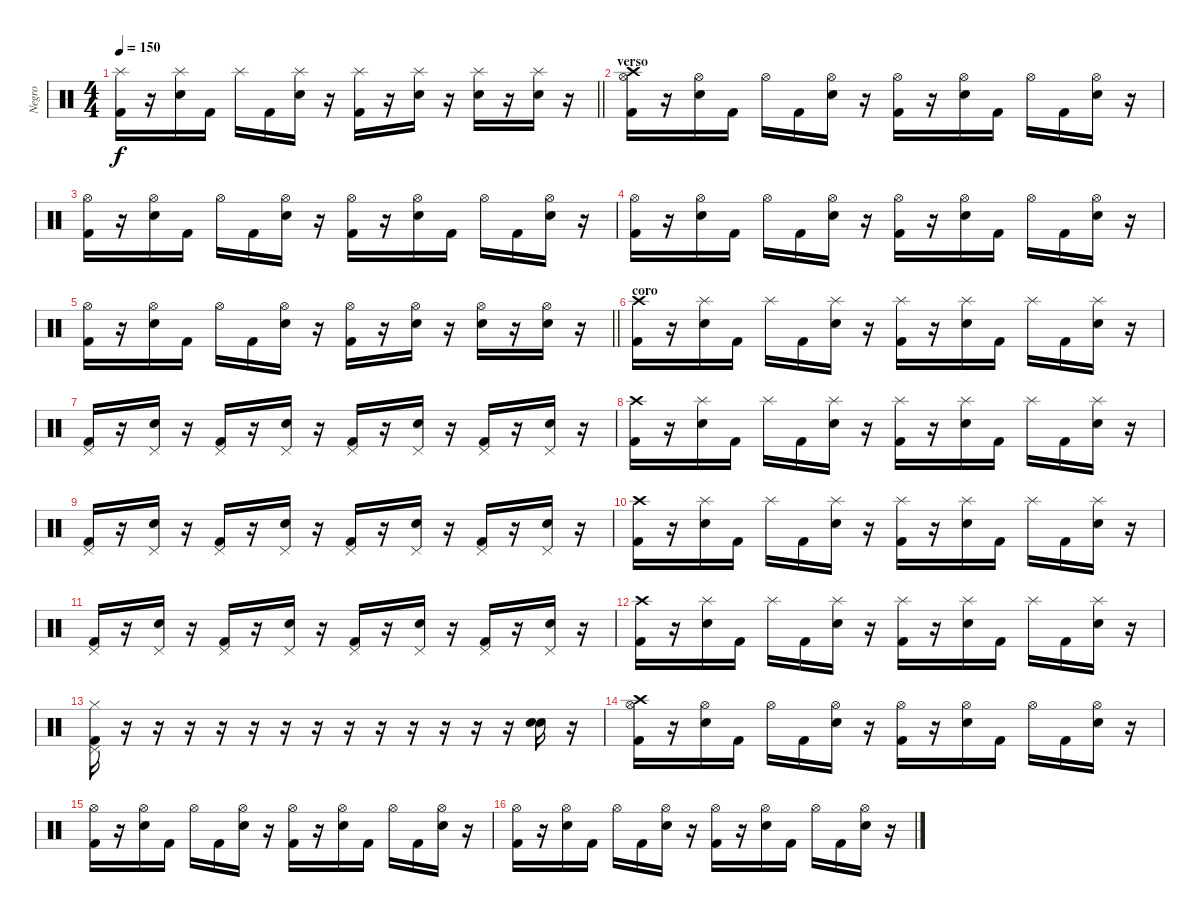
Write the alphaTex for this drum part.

\track ("Negro" "Negro") {instrument percussion}
\staff {score}
\articulation defaults
\ts (4 4)
\tempo 150
\clef neutral
\barLineRight lightlight
\ks c
("Kick (hit) 2" "Splash (hit)").16{dy f} r.16 ("Electric Snare (hit)" "Splash (hit)").16 "Kick (hit) 2".16 "Splash (hit)".16 "Kick (hit) 2".16 ("Electric Snare (hit)" "Splash (hit)").16 r.16 ("Kick (hit) 2" "Splash (hit)").16 r.16 ("Electric Snare (hit)" "Splash (hit)").16 r.16 ("Electric Snare (hit)" "Splash (hit)").16 r.16 ("Electric Snare (hit)" "Splash (hit)").16 r.16 |
\section ("" "verso")
("Kick (hit) 2" "Hi-Hat (open)" "Crash high (hit)").16 r.16 ("Electric Snare (hit)" "Hi-Hat (open)").16 "Kick (hit) 2".16 "Hi-Hat (open)".16 "Kick (hit) 2".16 ("Electric Snare (hit)" "Hi-Hat (open)").16 r.16 ("Kick (hit) 2" "Hi-Hat (open)").16 r.16 ("Electric Snare (hit)" "Hi-Hat (open)").16 "Kick (hit) 2".16 "Hi-Hat (open)".16 "Kick (hit) 2".16 ("Electric Snare (hit)" "Hi-Hat (open)").16 r.16 |
("Kick (hit) 2" "Hi-Hat (open)").16 r.16 ("Electric Snare (hit)" "Hi-Hat (open)").16 "Kick (hit) 2".16 "Hi-Hat (open)".16 "Kick (hit) 2".16 ("Electric Snare (hit)" "Hi-Hat (open)").16 r.16 ("Kick (hit) 2" "Hi-Hat (open)").16 r.16 ("Electric Snare (hit)" "Hi-Hat (open)").16 "Kick (hit) 2".16 "Hi-Hat (open)".16 "Kick (hit) 2".16 ("Electric Snare (hit)" "Hi-Hat (open)").16 r.16 |
("Kick (hit) 2" "Hi-Hat (open)").16 r.16 ("Electric Snare (hit)" "Hi-Hat (open)").16 "Kick (hit) 2".16 "Hi-Hat (open)".16 "Kick (hit) 2".16 ("Electric Snare (hit)" "Hi-Hat (open)").16 r.16 ("Kick (hit) 2" "Hi-Hat (open)").16 r.16 ("Electric Snare (hit)" "Hi-Hat (open)").16 "Kick (hit) 2".16 "Hi-Hat (open)".16 "Kick (hit) 2".16 ("Electric Snare (hit)" "Hi-Hat (open)").16 r.16 |
\barLineRight lightlight
("Kick (hit) 2" "Hi-Hat (open)").16 r.16 ("Electric Snare (hit)" "Hi-Hat (open)").16 "Kick (hit) 2".16 "Hi-Hat (open)".16 "Kick (hit) 2".16 ("Electric Snare (hit)" "Hi-Hat (open)").16 r.16 ("Kick (hit) 2" "Hi-Hat (open)").16 r.16 ("Electric Snare (hit)" "Hi-Hat (open)").16 r.16 ("Electric Snare (hit)" "Hi-Hat (open)").16 r.16 ("Electric Snare (hit)" "Hi-Hat (open)").16 r.16 |
\section ("" "coro")
("Kick (hit) 2" "Crash high (hit)").16 r.16 ("Electric Snare (hit)" "Splash (hit)").16 "Kick (hit) 2".16 "Splash (hit)".16 "Kick (hit) 2".16 ("Electric Snare (hit)" "Splash (hit)").16 r.16 ("Kick (hit) 2" "Splash (hit)").16 r.16 ("Electric Snare (hit)" "Splash (hit)").16 "Kick (hit) 2".16 "Splash (hit)".16 "Kick (hit) 2".16 ("Electric Snare (hit)" "Splash (hit)").16 r.16 |
("Kick (hit) 2" "Pedal Hi-Hat (hit)").16 r.16 ("Electric Snare (hit)" "Pedal Hi-Hat (hit)").16 r.16 ("Kick (hit) 2" "Pedal Hi-Hat (hit)").16 r.16 ("Electric Snare (hit)" "Pedal Hi-Hat (hit)").16 r.16 ("Kick (hit) 2" "Pedal Hi-Hat (hit)").16 r.16 ("Electric Snare (hit)" "Pedal Hi-Hat (hit)").16 r.16 ("Kick (hit) 2" "Pedal Hi-Hat (hit)").16 r.16 ("Electric Snare (hit)" "Pedal Hi-Hat (hit)").16 r.16 |
("Kick (hit) 2" "Crash high (hit)").16 r.16 ("Electric Snare (hit)" "Splash (hit)").16 "Kick (hit) 2".16 "Splash (hit)".16 "Kick (hit) 2".16 ("Electric Snare (hit)" "Splash (hit)").16 r.16 ("Kick (hit) 2" "Splash (hit)").16 r.16 ("Electric Snare (hit)" "Splash (hit)").16 "Kick (hit) 2".16 "Splash (hit)".16 "Kick (hit) 2".16 ("Electric Snare (hit)" "Splash (hit)").16 r.16 |
("Kick (hit) 2" "Pedal Hi-Hat (hit)").16 r.16 ("Electric Snare (hit)" "Pedal Hi-Hat (hit)").16 r.16 ("Kick (hit) 2" "Pedal Hi-Hat (hit)").16 r.16 ("Electric Snare (hit)" "Pedal Hi-Hat (hit)").16 r.16 ("Kick (hit) 2" "Pedal Hi-Hat (hit)").16 r.16 ("Electric Snare (hit)" "Pedal Hi-Hat (hit)").16 r.16 ("Kick (hit) 2" "Pedal Hi-Hat (hit)").16 r.16 ("Electric Snare (hit)" "Pedal Hi-Hat (hit)").16 r.16 |
("Kick (hit) 2" "Crash high (hit)").16 r.16 ("Electric Snare (hit)" "Splash (hit)").16 "Kick (hit) 2".16 "Splash (hit)".16 "Kick (hit) 2".16 ("Electric Snare (hit)" "Splash (hit)").16 r.16 ("Kick (hit) 2" "Splash (hit)").16 r.16 ("Electric Snare (hit)" "Splash (hit)").16 "Kick (hit) 2".16 "Splash (hit)".16 "Kick (hit) 2".16 ("Electric Snare (hit)" "Splash (hit)").16 r.16 |
("Kick (hit) 2" "Pedal Hi-Hat (hit)").16 r.16 ("Electric Snare (hit)" "Pedal Hi-Hat (hit)").16 r.16 ("Kick (hit) 2" "Pedal Hi-Hat (hit)").16 r.16 ("Electric Snare (hit)" "Pedal Hi-Hat (hit)").16 r.16 ("Kick (hit) 2" "Pedal Hi-Hat (hit)").16 r.16 ("Electric Snare (hit)" "Pedal Hi-Hat (hit)").16 r.16 ("Kick (hit) 2" "Pedal Hi-Hat (hit)").16 r.16 ("Electric Snare (hit)" "Pedal Hi-Hat (hit)").16 r.16 |
("Kick (hit) 2" "Crash high (hit)").16 r.16 ("Electric Snare (hit)" "Splash (hit)").16 "Kick (hit) 2".16 "Splash (hit)".16 "Kick (hit) 2".16 ("Electric Snare (hit)" "Splash (hit)").16 r.16 ("Kick (hit) 2" "Splash (hit)").16 r.16 ("Electric Snare (hit)" "Splash (hit)").16 "Kick (hit) 2".16 "Splash (hit)".16 "Kick (hit) 2".16 ("Electric Snare (hit)" "Splash (hit)").16 r.16 |
("Kick (hit) 2" "Pedal Hi-Hat (hit)" "Hi-Hat (closed)").16 r.16 r.16 r.16 r.16 r.16 r.16 r.16 r.16 r.16 r.16 r.16 r.16 r.16 ("Electric Snare (hit)" "Electric Snare (hit)").16 r.16 |
("Kick (hit) 2" "Hi-Hat (open)" "Crash high (hit)").16 r.16 ("Electric Snare (hit)" "Hi-Hat (open)").16 "Kick (hit) 2".16 "Hi-Hat (open)".16 "Kick (hit) 2".16 ("Electric Snare (hit)" "Hi-Hat (open)").16 r.16 ("Kick (hit) 2" "Hi-Hat (open)").16 r.16 ("Electric Snare (hit)" "Hi-Hat (open)").16 "Kick (hit) 2".16 "Hi-Hat (open)".16 "Kick (hit) 2".16 ("Electric Snare (hit)" "Hi-Hat (open)").16 r.16 |
("Kick (hit) 2" "Hi-Hat (open)").16 r.16 ("Electric Snare (hit)" "Hi-Hat (open)").16 "Kick (hit) 2".16 "Hi-Hat (open)".16 "Kick (hit) 2".16 ("Electric Snare (hit)" "Hi-Hat (open)").16 r.16 ("Kick (hit) 2" "Hi-Hat (open)").16 r.16 ("Electric Snare (hit)" "Hi-Hat (open)").16 "Kick (hit) 2".16 "Hi-Hat (open)".16 "Kick (hit) 2".16 ("Electric Snare (hit)" "Hi-Hat (open)").16 r.16 |
("Kick (hit) 2" "Hi-Hat (open)").16 r.16 ("Electric Snare (hit)" "Hi-Hat (open)").16 "Kick (hit) 2".16 "Hi-Hat (open)".16 "Kick (hit) 2".16 ("Electric Snare (hit)" "Hi-Hat (open)").16 r.16 ("Kick (hit) 2" "Hi-Hat (open)").16 r.16 ("Electric Snare (hit)" "Hi-Hat (open)").16 "Kick (hit) 2".16 "Hi-Hat (open)".16 "Kick (hit) 2".16 ("Electric Snare (hit)" "Hi-Hat (open)").16 r.16
